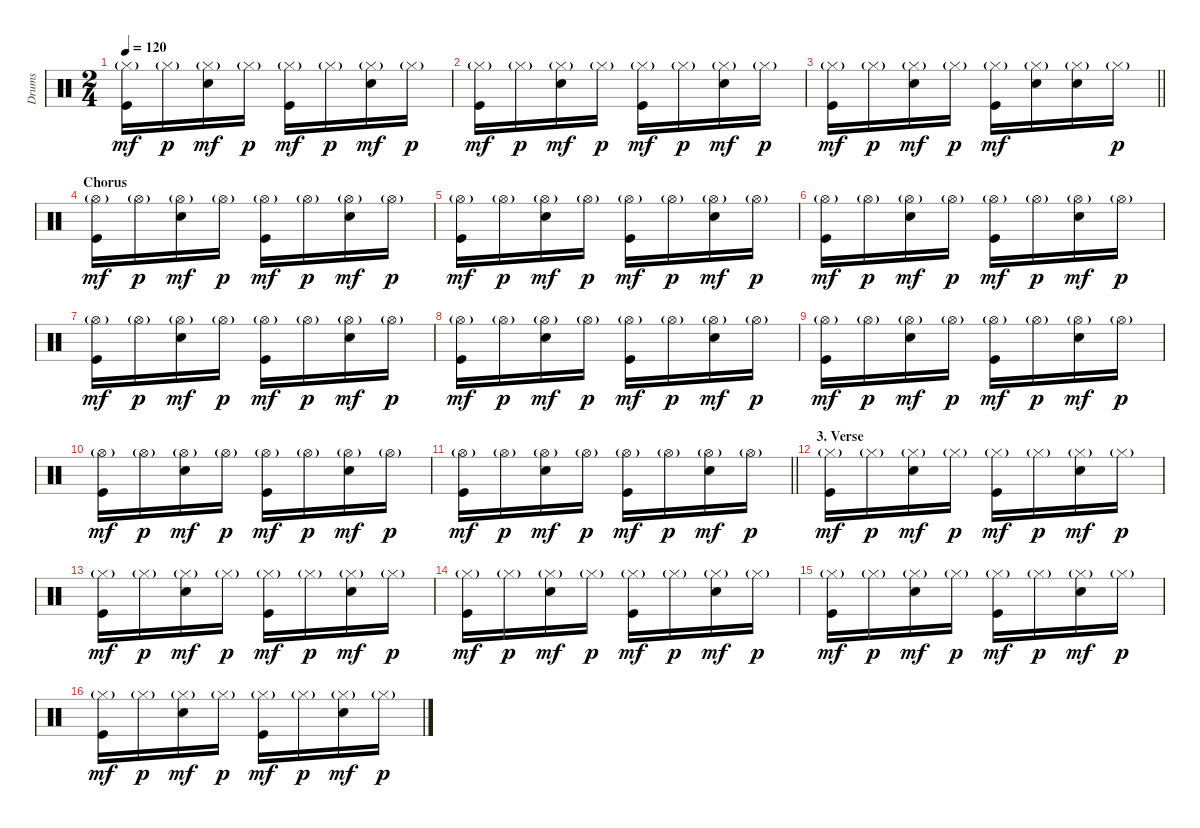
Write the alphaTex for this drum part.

\track ("Drums" "Drums") {instrument percussion}
\staff {score}
\articulation defaults
\ts (2 4)
\tempo 120
\clef neutral
\ks c
("Hi-Hat (closed)"{g} "Kick (hit)").16{dy mf} "Hi-Hat (closed)"{g}.16{dy p} ("Hi-Hat (closed)"{g} "Snare (hit) 2").16{dy mf} "Hi-Hat (closed)"{g}.16{dy p} ("Hi-Hat (closed)"{g} "Kick (hit)").16{dy mf} "Hi-Hat (closed)"{g}.16{dy p} ("Hi-Hat (closed)"{g} "Snare (hit) 2").16{dy mf} "Hi-Hat (closed)"{g}.16{dy p} |
("Hi-Hat (closed)"{g} "Kick (hit)").16{dy mf} "Hi-Hat (closed)"{g}.16{dy p} ("Hi-Hat (closed)"{g} "Snare (hit) 2").16{dy mf} "Hi-Hat (closed)"{g}.16{dy p} ("Hi-Hat (closed)"{g} "Kick (hit)").16{dy mf} "Hi-Hat (closed)"{g}.16{dy p} ("Hi-Hat (closed)"{g} "Snare (hit) 2").16{dy mf} "Hi-Hat (closed)"{g}.16{dy p} |
\barLineRight lightlight
("Hi-Hat (closed)"{g} "Kick (hit)").16{dy mf} "Hi-Hat (closed)"{g}.16{dy p} ("Hi-Hat (closed)"{g} "Snare (hit) 2").16{dy mf} "Hi-Hat (closed)"{g}.16{dy p} ("Hi-Hat (closed)"{g} "Kick (hit)").16{dy mf} ("Hi-Hat (closed)"{g} "Snare (hit) 2").16 ("Hi-Hat (closed)"{g} "Snare (hit) 2").16 "Hi-Hat (closed)"{g}.16{dy p} |
\section ("" "Chorus")
("Hi-Hat (open)"{g} "Kick (hit)").16{dy mf} "Hi-Hat (open)"{g}.16{dy p} ("Hi-Hat (open)"{g} "Snare (hit) 2").16{dy mf} "Hi-Hat (open)"{g}.16{dy p} ("Hi-Hat (open)"{g} "Kick (hit)").16{dy mf} "Hi-Hat (open)"{g}.16{dy p} ("Hi-Hat (open)"{g} "Snare (hit) 2").16{dy mf} "Hi-Hat (open)"{g}.16{dy p} |
("Hi-Hat (open)"{g} "Kick (hit)").16{dy mf} "Hi-Hat (open)"{g}.16{dy p} ("Hi-Hat (open)"{g} "Snare (hit) 2").16{dy mf} "Hi-Hat (open)"{g}.16{dy p} ("Hi-Hat (open)"{g} "Kick (hit)").16{dy mf} "Hi-Hat (open)"{g}.16{dy p} ("Hi-Hat (open)"{g} "Snare (hit) 2").16{dy mf} "Hi-Hat (open)"{g}.16{dy p} |
("Hi-Hat (open)"{g} "Kick (hit)").16{dy mf} "Hi-Hat (open)"{g}.16{dy p} ("Hi-Hat (open)"{g} "Snare (hit) 2").16{dy mf} "Hi-Hat (open)"{g}.16{dy p} ("Hi-Hat (open)"{g} "Kick (hit)").16{dy mf} "Hi-Hat (open)"{g}.16{dy p} ("Hi-Hat (open)"{g} "Snare (hit) 2").16{dy mf} "Hi-Hat (open)"{g}.16{dy p} |
("Hi-Hat (open)"{g} "Kick (hit)").16{dy mf} "Hi-Hat (open)"{g}.16{dy p} ("Hi-Hat (open)"{g} "Snare (hit) 2").16{dy mf} "Hi-Hat (open)"{g}.16{dy p} ("Hi-Hat (open)"{g} "Kick (hit)").16{dy mf} "Hi-Hat (open)"{g}.16{dy p} ("Hi-Hat (open)"{g} "Snare (hit) 2").16{dy mf} "Hi-Hat (open)"{g}.16{dy p} |
("Hi-Hat (open)"{g} "Kick (hit)").16{dy mf} "Hi-Hat (open)"{g}.16{dy p} ("Hi-Hat (open)"{g} "Snare (hit) 2").16{dy mf} "Hi-Hat (open)"{g}.16{dy p} ("Hi-Hat (open)"{g} "Kick (hit)").16{dy mf} "Hi-Hat (open)"{g}.16{dy p} ("Hi-Hat (open)"{g} "Snare (hit) 2").16{dy mf} "Hi-Hat (open)"{g}.16{dy p} |
("Hi-Hat (open)"{g} "Kick (hit)").16{dy mf} "Hi-Hat (open)"{g}.16{dy p} ("Hi-Hat (open)"{g} "Snare (hit) 2").16{dy mf} "Hi-Hat (open)"{g}.16{dy p} ("Hi-Hat (open)"{g} "Kick (hit)").16{dy mf} "Hi-Hat (open)"{g}.16{dy p} ("Hi-Hat (open)"{g} "Snare (hit) 2").16{dy mf} "Hi-Hat (open)"{g}.16{dy p} |
("Hi-Hat (open)"{g} "Kick (hit)").16{dy mf} "Hi-Hat (open)"{g}.16{dy p} ("Hi-Hat (open)"{g} "Snare (hit) 2").16{dy mf} "Hi-Hat (open)"{g}.16{dy p} ("Hi-Hat (open)"{g} "Kick (hit)").16{dy mf} "Hi-Hat (open)"{g}.16{dy p} ("Hi-Hat (open)"{g} "Snare (hit) 2").16{dy mf} "Hi-Hat (open)"{g}.16{dy p} |
\barLineRight lightlight
("Hi-Hat (open)"{g} "Kick (hit)").16{dy mf} "Hi-Hat (open)"{g}.16{dy p} ("Hi-Hat (open)"{g} "Snare (hit) 2").16{dy mf} "Hi-Hat (open)"{g}.16{dy p} ("Hi-Hat (open)"{g} "Kick (hit)").16{dy mf} "Hi-Hat (open)"{g}.16{dy p} ("Hi-Hat (open)"{g} "Snare (hit) 2").16{dy mf} "Hi-Hat (open)"{g}.16{dy p} |
\section ("" "3. Verse")
("Hi-Hat (closed)"{g} "Kick (hit)").16{dy mf} "Hi-Hat (closed)"{g}.16{dy p} ("Hi-Hat (closed)"{g} "Snare (hit) 2").16{dy mf} "Hi-Hat (closed)"{g}.16{dy p} ("Hi-Hat (closed)"{g} "Kick (hit)").16{dy mf} "Hi-Hat (closed)"{g}.16{dy p} ("Hi-Hat (closed)"{g} "Snare (hit) 2").16{dy mf} "Hi-Hat (closed)"{g}.16{dy p} |
("Hi-Hat (closed)"{g} "Kick (hit)").16{dy mf} "Hi-Hat (closed)"{g}.16{dy p} ("Hi-Hat (closed)"{g} "Snare (hit) 2").16{dy mf} "Hi-Hat (closed)"{g}.16{dy p} ("Hi-Hat (closed)"{g} "Kick (hit)").16{dy mf} "Hi-Hat (closed)"{g}.16{dy p} ("Hi-Hat (closed)"{g} "Snare (hit) 2").16{dy mf} "Hi-Hat (closed)"{g}.16{dy p} |
("Hi-Hat (closed)"{g} "Kick (hit)").16{dy mf} "Hi-Hat (closed)"{g}.16{dy p} ("Hi-Hat (closed)"{g} "Snare (hit) 2").16{dy mf} "Hi-Hat (closed)"{g}.16{dy p} ("Hi-Hat (closed)"{g} "Kick (hit)").16{dy mf} "Hi-Hat (closed)"{g}.16{dy p} ("Hi-Hat (closed)"{g} "Snare (hit) 2").16{dy mf} "Hi-Hat (closed)"{g}.16{dy p} |
("Hi-Hat (closed)"{g} "Kick (hit)").16{dy mf} "Hi-Hat (closed)"{g}.16{dy p} ("Hi-Hat (closed)"{g} "Snare (hit) 2").16{dy mf} "Hi-Hat (closed)"{g}.16{dy p} ("Hi-Hat (closed)"{g} "Kick (hit)").16{dy mf} "Hi-Hat (closed)"{g}.16{dy p} ("Hi-Hat (closed)"{g} "Snare (hit) 2").16{dy mf} "Hi-Hat (closed)"{g}.16{dy p} |
("Hi-Hat (closed)"{g} "Kick (hit)").16{dy mf} "Hi-Hat (closed)"{g}.16{dy p} ("Hi-Hat (closed)"{g} "Snare (hit) 2").16{dy mf} "Hi-Hat (closed)"{g}.16{dy p} ("Hi-Hat (closed)"{g} "Kick (hit)").16{dy mf} "Hi-Hat (closed)"{g}.16{dy p} ("Hi-Hat (closed)"{g} "Snare (hit) 2").16{dy mf} "Hi-Hat (closed)"{g}.16{dy p}
